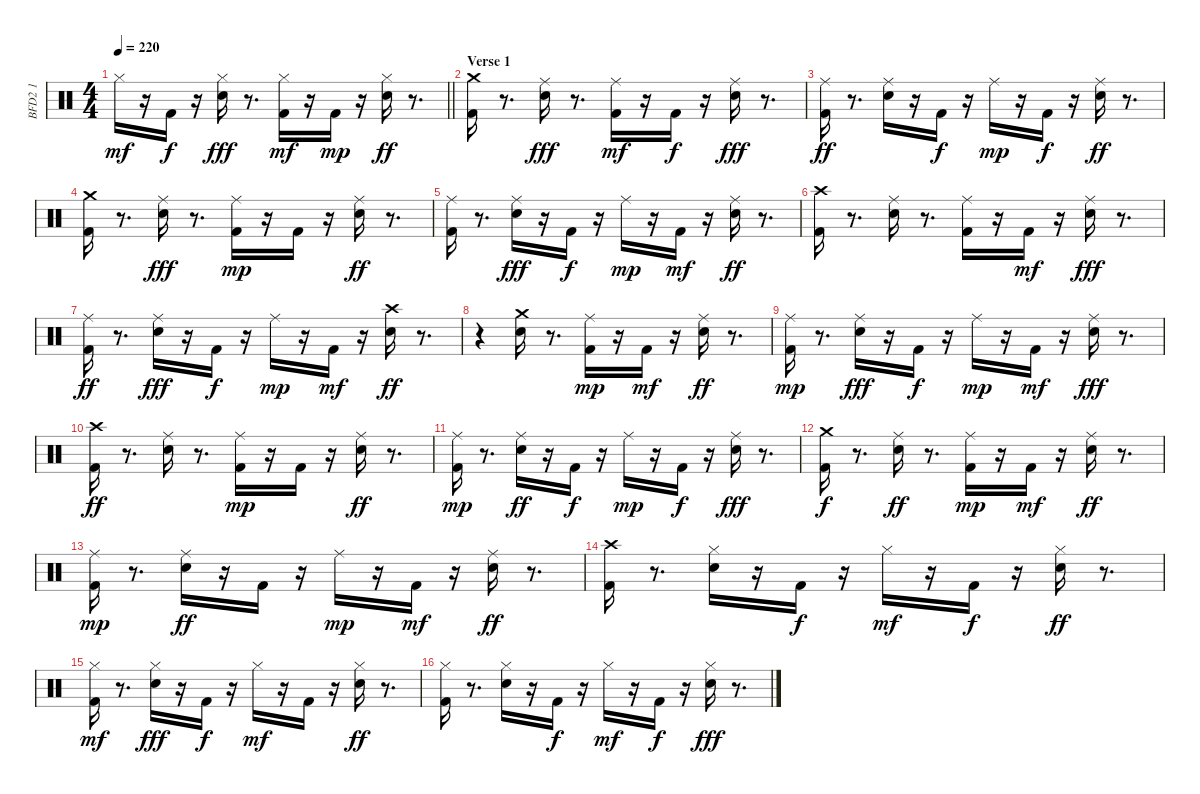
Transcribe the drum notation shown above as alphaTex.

\track ("BFD2 1" "BFD2 1") {instrument percussion}
\staff {score}
\articulation defaults
\ts (4 4)
\tempo 220
\clef neutral
\barLineRight lightlight
\ks c "Hi-Hat (closed)".16{dy mf}
r.16 "Kick (hit) 2".16{dy f} r.16 ("Hi-Hat (closed)" "Snare (hit) 2").16{dy fff} r.8{d} ("Hi-Hat (closed)" "Kick (hit) 2").16{dy mf} r.16 "Kick (hit) 2".16{dy mp} r.16 ("Hi-Hat (closed)" "Snare (hit) 2").16{dy ff} r.8{d} |
\section ("" "Verse 1")
("Crash medium (hit)" "Kick (hit) 2").16 r.8{d} ("Ride (middle)" "Snare (hit) 2").16{dy fff} r.8{d} ("Ride (middle)" "Kick (hit) 2").16{dy mf} r.16 "Kick (hit) 2".16{dy f} r.16 ("Ride (middle)" "Snare (hit) 2").16{dy fff} r.8{d} |
("Ride (middle)" "Kick (hit) 2").16{dy ff} r.8{d} ("Ride (middle)" "Snare (hit) 2").16 r.16 "Kick (hit) 2".16{dy f} r.16 "Ride (middle)".16{dy mp} r.16 "Kick (hit) 2".16{dy f} r.16 ("Ride (middle)" "Snare (hit) 2").16{dy ff} r.8{d} |
("Crash medium (hit)" "Kick (hit) 2").16 r.8{d} ("Ride (middle)" "Snare (hit) 2").16{dy fff} r.8{d} ("Ride (middle)" "Kick (hit) 2").16{dy mp} r.16 "Kick (hit) 2".16 r.16 ("Ride (middle)" "Snare (hit) 2").16{dy ff} r.8{d} |
("Ride (middle)" "Kick (hit) 2").16 r.8{d} ("Ride (middle)" "Snare (hit) 2").16{dy fff} r.16 "Kick (hit) 2".16{dy f} r.16 "Ride (middle)".16{dy mp} r.16 "Kick (hit) 2".16{dy mf} r.16 ("Ride (middle)" "Snare (hit) 2").16{dy ff} r.8{d} |
("Crash high (hit)" "Kick (hit) 2").16 r.8{d} ("Ride (middle)" "Snare (hit) 2").16 r.8{d} ("Ride (middle)" "Kick (hit) 2").16 r.16 "Kick (hit) 2".16{dy mf} r.16 ("Ride (middle)" "Snare (hit) 2").16{dy fff} r.8{d} |
("Ride (middle)" "Kick (hit) 2").16{dy ff} r.8{d} ("Ride (middle)" "Snare (hit) 2").16{dy fff} r.16 "Kick (hit) 2".16{dy f} r.16 "Ride (middle)".16{dy mp} r.16 "Kick (hit) 2".16{dy mf} r.16 ("Crash high (hit)" "Snare (hit) 2").16{dy ff} r.8{d} |
r.4 ("Crash medium (hit)" "Snare (hit) 2").16 r.8{d} ("Ride (middle)" "Kick (hit) 2").16{dy mp} r.16 "Kick (hit) 2".16{dy mf} r.16 ("Ride (middle)" "Snare (hit) 2").16{dy ff} r.8{d} |
("Ride (middle)" "Kick (hit) 2").16{dy mp} r.8{d} ("Ride (middle)" "Snare (hit) 2").16{dy fff} r.16 "Kick (hit) 2".16{dy f} r.16 "Ride (middle)".16{dy mp} r.16 "Kick (hit) 2".16{dy mf} r.16 ("Ride (middle)" "Snare (hit) 2").16{dy fff} r.8{d} |
("Crash high (hit)" "Kick (hit) 2").16{dy ff} r.8{d} ("Ride (middle)" "Snare (hit) 2").16 r.8{d} ("Ride (middle)" "Kick (hit) 2").16{dy mp} r.16 "Kick (hit) 2".16 r.16 ("Ride (middle)" "Snare (hit) 2").16{dy ff} r.8{d} |
("Ride (middle)" "Kick (hit) 2").16{dy mp} r.8{d} ("Ride (middle)" "Snare (hit) 2").16{dy ff} r.16 "Kick (hit) 2".16{dy f} r.16 "Ride (middle)".16{dy mp} r.16 "Kick (hit) 2".16{dy f} r.16 ("Ride (middle)" "Snare (hit) 2").16{dy fff} r.8{d} |
("Crash medium (hit)" "Kick (hit) 2").16{dy f} r.8{d} ("Ride (middle)" "Snare (hit) 2").16{dy ff} r.8{d} ("Ride (middle)" "Kick (hit) 2").16{dy mp} r.16 "Kick (hit) 2".16{dy mf} r.16 ("Ride (middle)" "Snare (hit) 2").16{dy ff} r.8{d} |
("Ride (middle)" "Kick (hit) 2").16{dy mp} r.8{d} ("Ride (middle)" "Snare (hit) 2").16{dy ff} r.16 "Kick (hit) 2".16 r.16 "Ride (middle)".16{dy mp} r.16 "Kick (hit) 2".16{dy mf} r.16 ("Ride (middle)" "Snare (hit) 2").16{dy ff} r.8{d} |
("Crash high (hit)" "Kick (hit) 2").16 r.8{d} ("Hi-Hat (closed)" "Snare (hit) 2").16 r.16 "Kick (hit) 2".16{dy f} r.16 "Hi-Hat (closed)".16{dy mf} r.16 "Kick (hit) 2".16{dy f} r.16 ("Hi-Hat (closed)" "Snare (hit) 2").16{dy ff} r.8{d} |
("Hi-Hat (closed)" "Kick (hit) 2").16{dy mf} r.8{d} ("Hi-Hat (closed)" "Snare (hit) 2").16{dy fff} r.16 "Kick (hit) 2".16{dy f} r.16 "Hi-Hat (closed)".16{dy mf} r.16 "Kick (hit) 2".16 r.16 ("Hi-Hat (closed)" "Snare (hit) 2").16{dy ff} r.8{d} |
("Hi-Hat (closed)" "Kick (hit) 2").16 r.8{d} ("Hi-Hat (closed)" "Snare (hit) 2").16 r.16 "Kick (hit) 2".16{dy f} r.16 "Hi-Hat (closed)".16{dy mf} r.16 "Kick (hit) 2".16{dy f} r.16 ("Hi-Hat (closed)" "Snare (hit) 2").16{dy fff} r.8{d}
